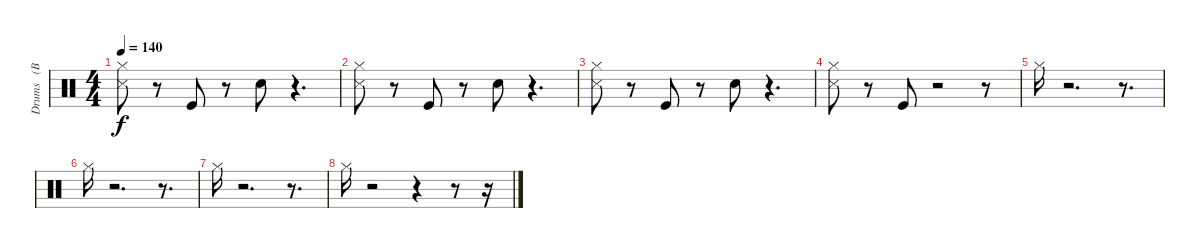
\track ("Drums   (BB)" "Drums   (B") {instrument percussion}
\staff {score}
\articulation defaults
\ts (4 4)
\tempo 140
\clef neutral
\ks c
("Metronome (hit)" "Hi-Hat (closed)").8{dy f volume 5} r.8 "Kick (hit)".8 r.8 "Snare (hit) 2".8 r.4{d} |
("Metronome (hit)" "Hi-Hat (closed)").8{volume 6} r.8 "Kick (hit)".8 r.8 "Snare (hit) 2".8 r.4{d} |
("Metronome (hit)" "Hi-Hat (closed)").8 r.8 "Kick (hit)".8 r.8 "Snare (hit) 2".8 r.4{d} |
("Metronome (hit)" "Hi-Hat (closed)").8 r.8 "Kick (hit)".8 r.2 r.8 |
"Hi-Hat (closed)".16 r.2{d} r.8{d} |
"Hi-Hat (closed)".16{volume 1} r.2{d} r.8{d} |
"Hi-Hat (closed)".16{volume 0} r.2{d} r.8{d} |
"Hi-Hat (closed)".16 r.2 r.4 r.8 r.16
